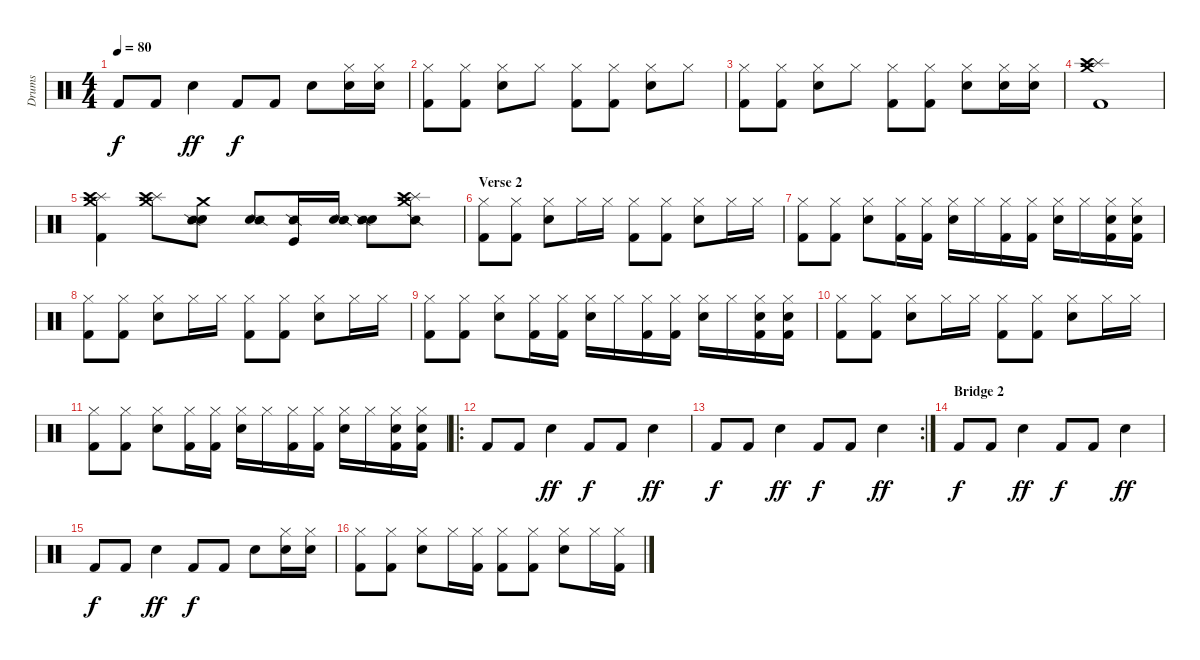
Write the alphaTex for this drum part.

\track ("Drums" "Drums") {instrument percussion}
\staff {score}
\articulation defaults
\ts (4 4)
\tempo 80
\clef neutral
\ks c "Kick (hit) 2".8{dy f} "Kick (hit) 2".8 "Snare (hit) 2".4{dy ff} "Kick (hit) 2".8{dy f} "Kick (hit) 2".8 "Snare (hit) 2".8
("Hi-Hat (closed)" "Snare (hit) 2").16 ("Hi-Hat (closed)" "Snare (hit) 2").16 |
("Hi-Hat (closed)" "Kick (hit) 2").8 ("Hi-Hat (closed)" "Kick (hit) 2").8 ("Hi-Hat (closed)" "Snare (hit) 2").8 "Hi-Hat (closed)".8 ("Hi-Hat (closed)" "Kick (hit) 2").8 ("Hi-Hat (closed)" "Kick (hit) 2").8 ("Hi-Hat (closed)" "Snare (hit) 2").8 "Hi-Hat (closed)".8 |
("Hi-Hat (closed)" "Kick (hit) 2").8 ("Hi-Hat (closed)" "Kick (hit) 2").8 ("Hi-Hat (closed)" "Snare (hit) 2").8 "Hi-Hat (closed)".8 ("Hi-Hat (closed)" "Kick (hit) 2").8 ("Hi-Hat (closed)" "Kick (hit) 2").8 ("Hi-Hat (closed)" "Snare (hit) 2").8 ("Hi-Hat (closed)" "Snare (hit) 2").16 ("Hi-Hat (closed)" "Snare (hit) 2").16 |
("Crash medium (hit)" "Splash (hit)" "Crash high (hit)" "Kick (hit) 2").1 |
("Crash medium (hit)" "Splash (hit)" "Crash high (hit)" "Kick (hit) 2").4 ("Crash medium (hit)" "Splash (hit)" "Crash high (hit)").8 ("Crash medium (hit)" "Metronome (bell)" "Snare (side stick) 2").8 ("Metronome (bell)" "Snare (side stick) 2").8 ("Kick (hit)" "Snare (side stick) 2").16 ("Metronome (bell)" "Snare (side stick) 2").16 ("Metronome (bell)" "Snare (side stick) 2").8 ("Crash medium (hit)" "Splash (hit)" "Crash high (hit)" "Snare (side stick) 2").8 |
\section ("" "Verse 2")
("Hi-Hat (closed)" "Kick (hit) 2").8 ("Hi-Hat (closed)" "Kick (hit) 2").8 ("Hi-Hat (closed)" "Snare (hit) 2").8 "Hi-Hat (closed)".16 "Hi-Hat (closed)".16 ("Hi-Hat (closed)" "Kick (hit) 2").8 ("Hi-Hat (closed)" "Kick (hit) 2").8 ("Hi-Hat (closed)" "Snare (hit) 2").8 "Hi-Hat (closed)".16 "Hi-Hat (closed)".16 |
("Hi-Hat (closed)" "Kick (hit) 2").8 ("Hi-Hat (closed)" "Kick (hit) 2").8 ("Hi-Hat (closed)" "Snare (hit) 2").8 ("Hi-Hat (closed)" "Kick (hit) 2").16 ("Hi-Hat (closed)" "Kick (hit) 2").16 ("Hi-Hat (closed)" "Snare (hit) 2").16 "Hi-Hat (closed)".16 ("Hi-Hat (closed)" "Kick (hit) 2").16 ("Hi-Hat (closed)" "Kick (hit) 2").16 ("Hi-Hat (closed)" "Snare (hit) 2").16 "Hi-Hat (closed)".16 ("Hi-Hat (closed)" "Snare (hit) 2" "Kick (hit) 2").16 ("Hi-Hat (closed)" "Snare (hit) 2" "Kick (hit) 2").16 |
("Hi-Hat (closed)" "Kick (hit) 2").8 ("Hi-Hat (closed)" "Kick (hit) 2").8 ("Hi-Hat (closed)" "Snare (hit) 2").8 "Hi-Hat (closed)".16 "Hi-Hat (closed)".16 ("Hi-Hat (closed)" "Kick (hit) 2").8 ("Hi-Hat (closed)" "Kick (hit) 2").8 ("Hi-Hat (closed)" "Snare (hit) 2").8 "Hi-Hat (closed)".16 "Hi-Hat (closed)".16 |
("Hi-Hat (closed)" "Kick (hit) 2").8 ("Hi-Hat (closed)" "Kick (hit) 2").8 ("Hi-Hat (closed)" "Snare (hit) 2").8 ("Hi-Hat (closed)" "Kick (hit) 2").16 ("Hi-Hat (closed)" "Kick (hit) 2").16 ("Hi-Hat (closed)" "Snare (hit) 2").16 "Hi-Hat (closed)".16 ("Hi-Hat (closed)" "Kick (hit) 2").16 ("Hi-Hat (closed)" "Kick (hit) 2").16 ("Hi-Hat (closed)" "Snare (hit) 2").16 "Hi-Hat (closed)".16 ("Hi-Hat (closed)" "Snare (hit) 2" "Kick (hit) 2").16 ("Hi-Hat (closed)" "Snare (hit) 2" "Kick (hit) 2").16 |
("Hi-Hat (closed)" "Kick (hit) 2").8 ("Hi-Hat (closed)" "Kick (hit) 2").8 ("Hi-Hat (closed)" "Snare (hit) 2").8 "Hi-Hat (closed)".16 "Hi-Hat (closed)".16 ("Hi-Hat (closed)" "Kick (hit) 2").8 ("Hi-Hat (closed)" "Kick (hit) 2").8 ("Hi-Hat (closed)" "Snare (hit) 2").8 "Hi-Hat (closed)".16 "Hi-Hat (closed)".16 |
("Hi-Hat (closed)" "Kick (hit) 2").8 ("Hi-Hat (closed)" "Kick (hit) 2").8 ("Hi-Hat (closed)" "Snare (hit) 2").8 ("Hi-Hat (closed)" "Kick (hit) 2").16 ("Hi-Hat (closed)" "Kick (hit) 2").16 ("Hi-Hat (closed)" "Snare (hit) 2").16 "Hi-Hat (closed)".16 ("Hi-Hat (closed)" "Kick (hit) 2").16 ("Hi-Hat (closed)" "Kick (hit) 2").16 ("Hi-Hat (closed)" "Snare (hit) 2").16 "Hi-Hat (closed)".16 ("Hi-Hat (closed)" "Snare (hit) 2" "Kick (hit) 2").16 ("Hi-Hat (closed)" "Snare (hit) 2" "Kick (hit) 2").16 |
\ro "Kick (hit) 2".8 "Kick (hit) 2".8 "Snare (hit) 2".4{dy ff} "Kick (hit) 2".8{dy f} "Kick (hit) 2".8 "Snare (hit) 2".4{dy ff}
|
\rc 2 "Kick (hit) 2".8{dy f} "Kick (hit) 2".8 "Snare (hit) 2".4{dy ff} "Kick (hit) 2".8{dy f} "Kick (hit) 2".8 "Snare (hit) 2".4{dy ff}
|
\section ("" "Bridge 2")
"Kick (hit) 2".8{dy f} "Kick (hit) 2".8 "Snare (hit) 2".4{dy ff} "Kick (hit) 2".8{dy f} "Kick (hit) 2".8 "Snare (hit) 2".4{dy ff} |
"Kick (hit) 2".8{dy f} "Kick (hit) 2".8 "Snare (hit) 2".4{dy ff} "Kick (hit) 2".8{dy f} "Kick (hit) 2".8 "Snare (hit) 2".8 ("Hi-Hat (closed)" "Snare (hit) 2").16 ("Hi-Hat (closed)" "Snare (hit) 2").16 |
("Hi-Hat (closed)" "Kick (hit) 2").8 ("Hi-Hat (closed)" "Kick (hit) 2").8 ("Hi-Hat (closed)" "Snare (hit) 2").8 "Hi-Hat (closed)".16 ("Hi-Hat (closed)" "Kick (hit) 2").16 ("Hi-Hat (closed)" "Kick (hit) 2").8 ("Hi-Hat (closed)" "Kick (hit) 2").8 ("Hi-Hat (closed)" "Snare (hit) 2").8 "Hi-Hat (closed)".16 ("Hi-Hat (closed)" "Kick (hit) 2").16
